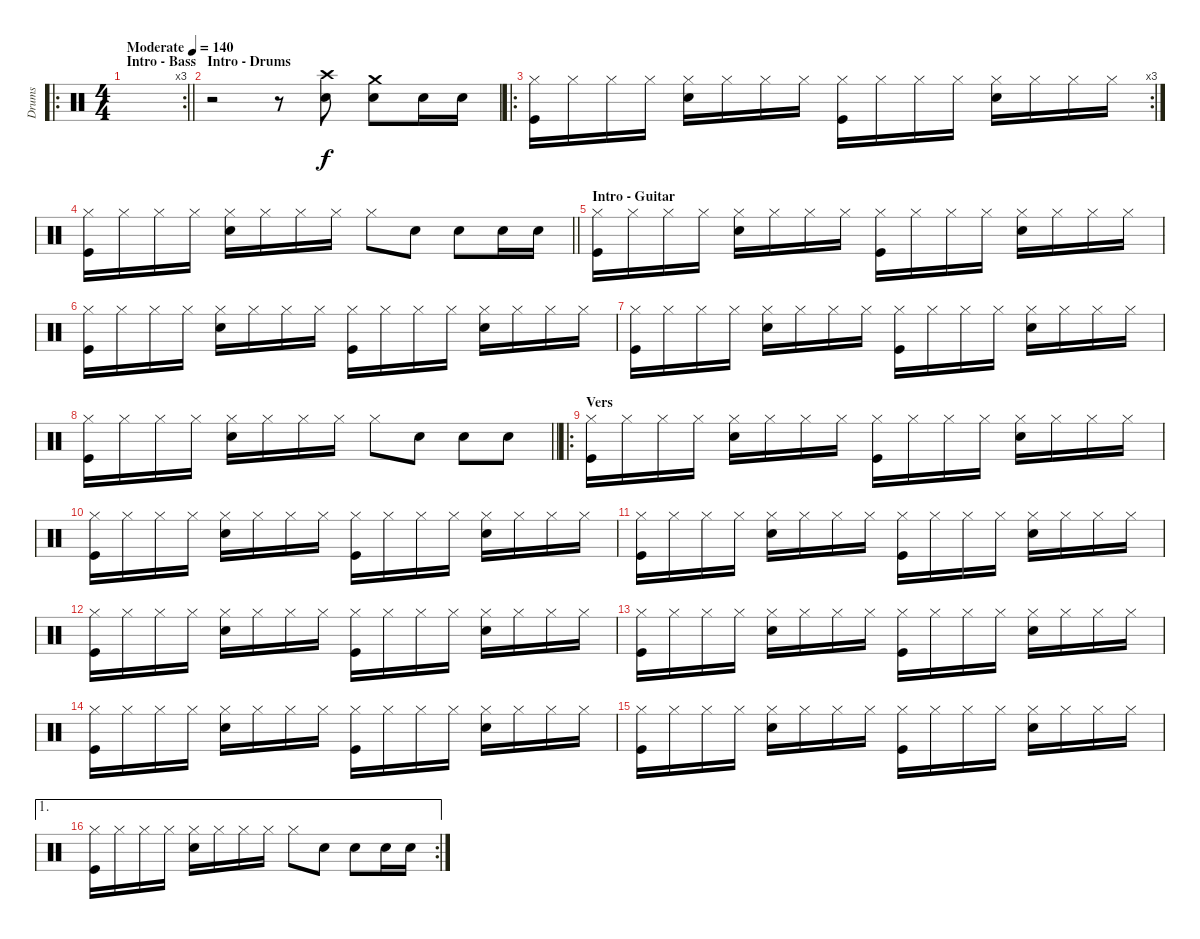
\track ("Drums" "Drums") {instrument percussion}
\staff {score}
\articulation defaults
\ro
\rc 3
\ts (4 4)
\section ("" "Intro - Bass")
\tempo (140 "Moderate")
\clef neutral
\barLineRight lightlight
\ks c
|
\section ("" "Intro - Drums")
r.2 r.8 ("Snare (hit) 2" "Crash high (hit)").8 ("Snare (hit) 2" "Crash medium (hit)").8 "Snare (hit) 2".16 "Snare (hit) 2".16 |
\ro
\rc 3
("Hi-Hat (closed)" "Kick (hit)").16 "Hi-Hat (closed)".16 "Hi-Hat (closed)".16 "Hi-Hat (closed)".16 ("Snare (hit) 2" "Hi-Hat (closed)").16 "Hi-Hat (closed)".16 "Hi-Hat (closed)".16 "Hi-Hat (closed)".16 ("Hi-Hat (closed)" "Kick (hit)").16 "Hi-Hat (closed)".16 "Hi-Hat (closed)".16 "Hi-Hat (closed)".16 ("Snare (hit) 2" "Hi-Hat (closed)").16 "Hi-Hat (closed)".16 "Hi-Hat (closed)".16 "Hi-Hat (closed)".16 |
\barLineRight lightlight
("Hi-Hat (closed)" "Kick (hit)").16 "Hi-Hat (closed)".16 "Hi-Hat (closed)".16 "Hi-Hat (closed)".16 ("Snare (hit) 2" "Hi-Hat (closed)").16 "Hi-Hat (closed)".16 "Hi-Hat (closed)".16 "Hi-Hat (closed)".16 "Hi-Hat (closed)".8 "Snare (hit) 2".8 "Snare (hit) 2".8 "Snare (hit) 2".16 "Snare (hit) 2".16 |
\section ("" "Intro - Guitar")
("Hi-Hat (closed)" "Kick (hit)").16 "Hi-Hat (closed)".16 "Hi-Hat (closed)".16 "Hi-Hat (closed)".16 ("Snare (hit) 2" "Hi-Hat (closed)").16 "Hi-Hat (closed)".16 "Hi-Hat (closed)".16 "Hi-Hat (closed)".16 ("Hi-Hat (closed)" "Kick (hit)").16 "Hi-Hat (closed)".16 "Hi-Hat (closed)".16 "Hi-Hat (closed)".16 ("Snare (hit) 2" "Hi-Hat (closed)").16 "Hi-Hat (closed)".16 "Hi-Hat (closed)".16 "Hi-Hat (closed)".16 |
("Hi-Hat (closed)" "Kick (hit)").16 "Hi-Hat (closed)".16 "Hi-Hat (closed)".16 "Hi-Hat (closed)".16 ("Snare (hit) 2" "Hi-Hat (closed)").16 "Hi-Hat (closed)".16 "Hi-Hat (closed)".16 "Hi-Hat (closed)".16 ("Hi-Hat (closed)" "Kick (hit)").16 "Hi-Hat (closed)".16 "Hi-Hat (closed)".16 "Hi-Hat (closed)".16 ("Snare (hit) 2" "Hi-Hat (closed)").16 "Hi-Hat (closed)".16 "Hi-Hat (closed)".16 "Hi-Hat (closed)".16 |
("Hi-Hat (closed)" "Kick (hit)").16 "Hi-Hat (closed)".16 "Hi-Hat (closed)".16 "Hi-Hat (closed)".16 ("Snare (hit) 2" "Hi-Hat (closed)").16 "Hi-Hat (closed)".16 "Hi-Hat (closed)".16 "Hi-Hat (closed)".16 ("Hi-Hat (closed)" "Kick (hit)").16 "Hi-Hat (closed)".16 "Hi-Hat (closed)".16 "Hi-Hat (closed)".16 ("Snare (hit) 2" "Hi-Hat (closed)").16 "Hi-Hat (closed)".16 "Hi-Hat (closed)".16 "Hi-Hat (closed)".16 |
\barLineRight lightlight
("Hi-Hat (closed)" "Kick (hit)").16 "Hi-Hat (closed)".16 "Hi-Hat (closed)".16 "Hi-Hat (closed)".16 ("Snare (hit) 2" "Hi-Hat (closed)").16 "Hi-Hat (closed)".16 "Hi-Hat (closed)".16 "Hi-Hat (closed)".16 "Hi-Hat (closed)".8 "Snare (hit) 2".8 "Snare (hit) 2".8 "Snare (hit) 2".8 |
\ro
\section ("" "Vers")
("Hi-Hat (closed)" "Kick (hit)").16 "Hi-Hat (closed)".16 "Hi-Hat (closed)".16 "Hi-Hat (closed)".16 ("Snare (hit) 2" "Hi-Hat (closed)").16 "Hi-Hat (closed)".16 "Hi-Hat (closed)".16 "Hi-Hat (closed)".16 ("Hi-Hat (closed)" "Kick (hit)").16 "Hi-Hat (closed)".16 "Hi-Hat (closed)".16 "Hi-Hat (closed)".16 ("Snare (hit) 2" "Hi-Hat (closed)").16 "Hi-Hat (closed)".16 "Hi-Hat (closed)".16 "Hi-Hat (closed)".16 |
("Hi-Hat (closed)" "Kick (hit)").16 "Hi-Hat (closed)".16 "Hi-Hat (closed)".16 "Hi-Hat (closed)".16 ("Snare (hit) 2" "Hi-Hat (closed)").16 "Hi-Hat (closed)".16 "Hi-Hat (closed)".16 "Hi-Hat (closed)".16 ("Hi-Hat (closed)" "Kick (hit)").16 "Hi-Hat (closed)".16 "Hi-Hat (closed)".16 "Hi-Hat (closed)".16 ("Snare (hit) 2" "Hi-Hat (closed)").16 "Hi-Hat (closed)".16 "Hi-Hat (closed)".16 "Hi-Hat (closed)".16 |
("Hi-Hat (closed)" "Kick (hit)").16 "Hi-Hat (closed)".16 "Hi-Hat (closed)".16 "Hi-Hat (closed)".16 ("Snare (hit) 2" "Hi-Hat (closed)").16 "Hi-Hat (closed)".16 "Hi-Hat (closed)".16 "Hi-Hat (closed)".16 ("Hi-Hat (closed)" "Kick (hit)").16 "Hi-Hat (closed)".16 "Hi-Hat (closed)".16 "Hi-Hat (closed)".16 ("Snare (hit) 2" "Hi-Hat (closed)").16 "Hi-Hat (closed)".16 "Hi-Hat (closed)".16 "Hi-Hat (closed)".16 |
("Hi-Hat (closed)" "Kick (hit)").16 "Hi-Hat (closed)".16 "Hi-Hat (closed)".16 "Hi-Hat (closed)".16 ("Snare (hit) 2" "Hi-Hat (closed)").16 "Hi-Hat (closed)".16 "Hi-Hat (closed)".16 "Hi-Hat (closed)".16 ("Hi-Hat (closed)" "Kick (hit)").16 "Hi-Hat (closed)".16 "Hi-Hat (closed)".16 "Hi-Hat (closed)".16 ("Snare (hit) 2" "Hi-Hat (closed)").16 "Hi-Hat (closed)".16 "Hi-Hat (closed)".16 "Hi-Hat (closed)".16 |
("Hi-Hat (closed)" "Kick (hit)").16 "Hi-Hat (closed)".16 "Hi-Hat (closed)".16 "Hi-Hat (closed)".16 ("Snare (hit) 2" "Hi-Hat (closed)").16 "Hi-Hat (closed)".16 "Hi-Hat (closed)".16 "Hi-Hat (closed)".16 ("Hi-Hat (closed)" "Kick (hit)").16 "Hi-Hat (closed)".16 "Hi-Hat (closed)".16 "Hi-Hat (closed)".16 ("Snare (hit) 2" "Hi-Hat (closed)").16 "Hi-Hat (closed)".16 "Hi-Hat (closed)".16 "Hi-Hat (closed)".16 |
("Hi-Hat (closed)" "Kick (hit)").16 "Hi-Hat (closed)".16 "Hi-Hat (closed)".16 "Hi-Hat (closed)".16 ("Snare (hit) 2" "Hi-Hat (closed)").16 "Hi-Hat (closed)".16 "Hi-Hat (closed)".16 "Hi-Hat (closed)".16 ("Hi-Hat (closed)" "Kick (hit)").16 "Hi-Hat (closed)".16 "Hi-Hat (closed)".16 "Hi-Hat (closed)".16 ("Snare (hit) 2" "Hi-Hat (closed)").16 "Hi-Hat (closed)".16 "Hi-Hat (closed)".16 "Hi-Hat (closed)".16 |
("Hi-Hat (closed)" "Kick (hit)").16 "Hi-Hat (closed)".16 "Hi-Hat (closed)".16 "Hi-Hat (closed)".16 ("Snare (hit) 2" "Hi-Hat (closed)").16 "Hi-Hat (closed)".16 "Hi-Hat (closed)".16 "Hi-Hat (closed)".16 ("Hi-Hat (closed)" "Kick (hit)").16 "Hi-Hat (closed)".16 "Hi-Hat (closed)".16 "Hi-Hat (closed)".16 ("Snare (hit) 2" "Hi-Hat (closed)").16 "Hi-Hat (closed)".16 "Hi-Hat (closed)".16 "Hi-Hat (closed)".16 |
\ae 1
\rc 2
("Hi-Hat (closed)" "Kick (hit)").16 "Hi-Hat (closed)".16 "Hi-Hat (closed)".16 "Hi-Hat (closed)".16 ("Snare (hit) 2" "Hi-Hat (closed)").16 "Hi-Hat (closed)".16 "Hi-Hat (closed)".16 "Hi-Hat (closed)".16 "Hi-Hat (closed)".8 "Snare (hit) 2".8 "Snare (hit) 2".8 "Snare (hit) 2".16 "Snare (hit) 2".16
